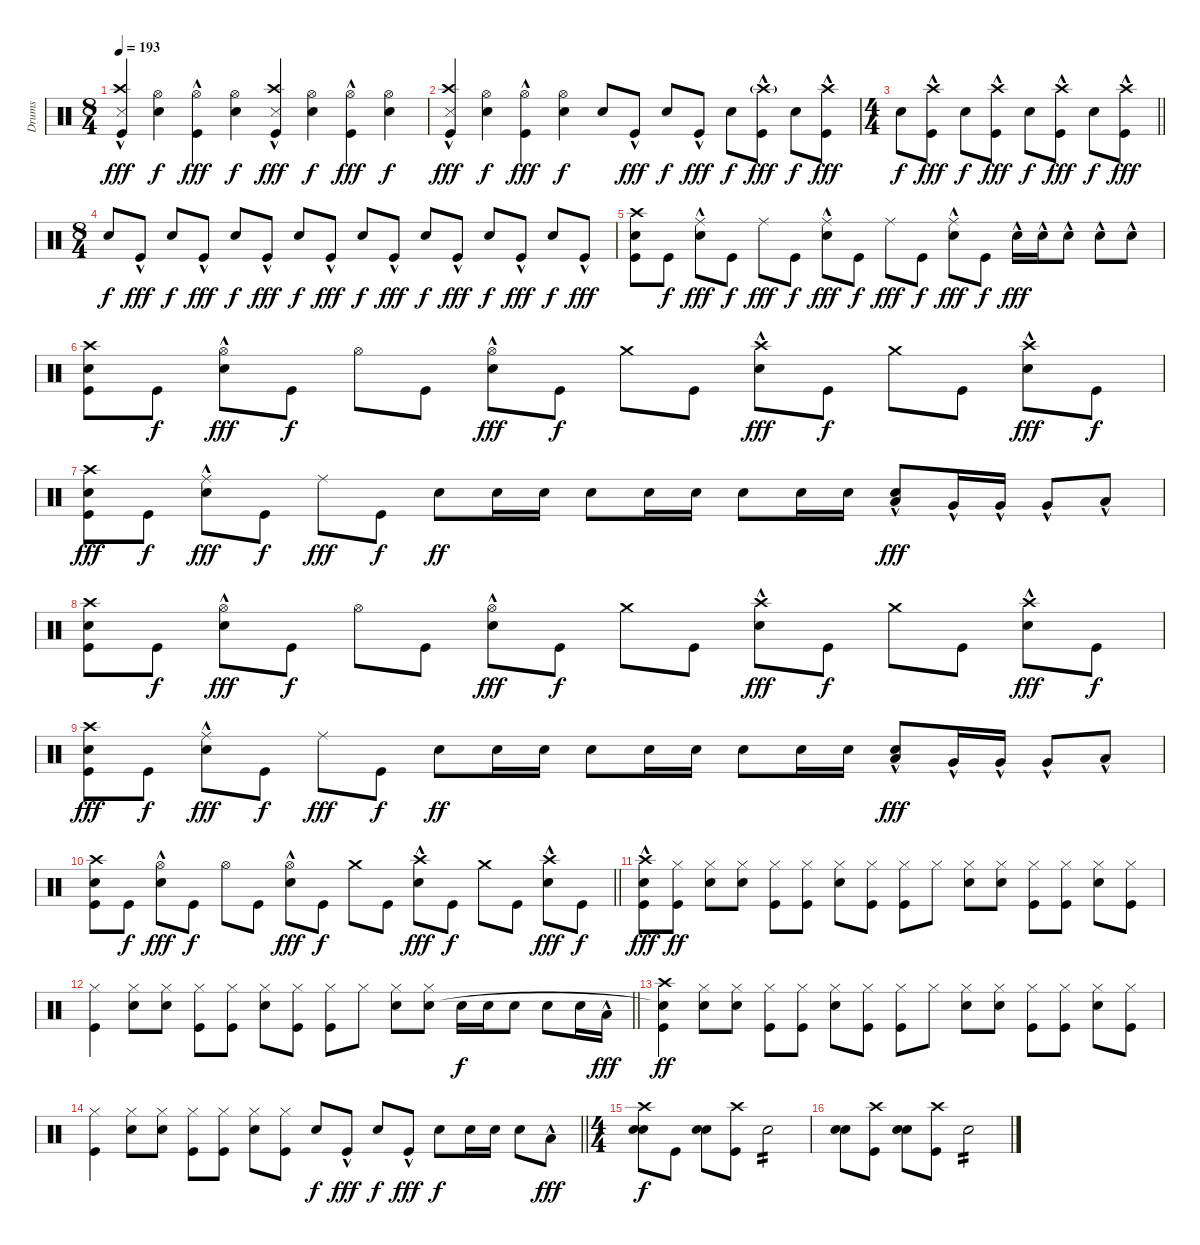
\track ("Drums" "Drums") {instrument percussion}
\staff {score}
\articulation defaults
\ts (8 4)
\tempo 193
\clef neutral
\ks c
("Snare (side stick) 3" "Crash high (hit)" "Kick (hit)"{hac}).4{dy fff} ("Hi-Hat (open)" "Snare (hit) 2").4{dy f} ("Hi-Hat (open)" "Kick (hit)"{hac}).4{dy fff} ("Hi-Hat (open)" "Snare (hit) 2").4{dy f} ("Snare (side stick) 3" "Crash high (hit)" "Kick (hit)"{hac}).4{dy fff} ("Hi-Hat (open)" "Snare (hit) 2").4{dy f} ("Hi-Hat (open)" "Kick (hit)"{hac}).4{dy fff} ("Hi-Hat (open)" "Snare (hit) 2").4{dy f} |
("Snare (side stick) 3" "Crash high (hit)" "Kick (hit)"{hac}).4{dy fff} ("Hi-Hat (open)" "Snare (hit) 2").4{dy f} ("Hi-Hat (open)" "Kick (hit)"{hac}).4{dy fff} ("Hi-Hat (open)" "Snare (hit) 2").4{dy f} "Snare (hit) 2".8 "Kick (hit)"{hac}.8{dy fff} "Snare (hit) 2".8{dy f} "Kick (hit)"{hac}.8{dy fff} "Snare (hit) 2".8{dy f} ("Crash high (hit)"{g} "Kick (hit)"{hac}).8{dy fff} "Snare (hit) 2".8{dy f} ("Crash high (hit)" "Kick (hit)"{hac}).8{dy fff} |
\ts (4 4)
\barLineRight lightlight "Snare (hit) 2".8{dy f}
("Crash high (hit)" "Kick (hit)"{hac}).8{dy fff} "Snare (hit) 2".8{dy f} ("Crash high (hit)" "Kick (hit)"{hac}).8{dy fff} "Snare (hit) 2".8{dy f} ("Crash high (hit)" "Kick (hit)"{hac}).8{dy fff} "Snare (hit) 2".8{dy f} ("Crash high (hit)" "Kick (hit)"{hac}).8{dy fff} |
\ts (8 4)
"Snare (hit) 2".8{dy f} "Kick (hit)"{hac}.8{dy fff} "Snare (hit) 2".8{dy f} "Kick (hit)"{hac}.8{dy fff} "Snare (hit) 2".8{dy f} "Kick (hit)"{hac}.8{dy fff} "Snare (hit) 2".8{dy f} "Kick (hit)"{hac}.8{dy fff} "Snare (hit) 2".8{dy f} "Kick (hit)"{hac}.8{dy fff} "Snare (hit) 2".8{dy f} "Kick (hit)"{hac}.8{dy fff} "Snare (hit) 2".8{dy f} "Kick (hit)"{hac}.8{dy fff} "Snare (hit) 2".8{dy f} "Kick (hit)"{hac}.8{dy fff} |
("Crash high (hit)" "Snare (hit) 2" "Kick (hit)").8 "Kick (hit)".8{dy f} ("Ride (middle)" "Snare (hit) 2"{hac}).8{dy fff} "Kick (hit)".8{dy f} "Ride (middle)".8{dy fff} "Kick (hit)".8{dy f} ("Ride (middle)" "Snare (hit) 2"{hac}).8{dy fff} "Kick (hit)".8{dy f} "Ride (middle)".8{dy fff} "Kick (hit)".8{dy f} ("Ride (middle)" "Snare (hit) 2"{hac}).8{dy fff} "Kick (hit)".8{dy f} "Snare (hit) 2"{hac}.16{dy fff} "Snare (hit) 2"{hac}.16 "Snare (hit) 2"{hac}.8 "Snare (hit) 2"{hac}.8 "Snare (hit) 2"{hac}.8 |
("Crash high (hit)" "Snare (hit) 2" "Kick (hit)").8 "Kick (hit)".8{dy f} ("Hi-Hat (open)" "Snare (hit) 2"{hac}).8{dy fff} "Kick (hit)".8{dy f} "Hi-Hat (open)".8 "Kick (hit)".8 ("Hi-Hat (open)" "Snare (hit) 2"{hac}).8{dy fff} "Kick (hit)".8{dy f} "Crash medium (hit)".8 "Kick (hit)".8 ("Crash high (hit)" "Snare (hit) 2"{hac}).8{dy fff} "Kick (hit)".8{dy f} "Crash medium (hit)".8 "Kick (hit)".8 ("Crash high (hit)" "Snare (hit) 2"{hac}).8{dy fff} "Kick (hit)".8{dy f} |
("Crash high (hit)" "Snare (hit) 2" "Kick (hit)").8{dy fff} "Kick (hit)".8{dy f} ("Ride (middle)" "Snare (hit) 2"{hac}).8{dy fff} "Kick (hit)".8{dy f} "Ride (middle)".8{dy fff} "Kick (hit)".8{dy f} "Snare (hit) 2".8{dy ff} "Snare (hit) 2".16 "Snare (hit) 2".16 "Snare (hit) 2".8 "Snare (hit) 2".16 "Snare (hit) 2".16 "Snare (hit) 2".8 "Snare (hit) 2".16 "Snare (hit) 2".16 ("Snare (hit) 2" "Low Tom (hit)"{hac}).8{dy fff} "Very Low Tom (hit)"{hac}.16 "Very Low Tom (hit)"{hac}.16 "Very Low Tom (hit)"{hac}.8 "Low Floor Tom (hit)"{hac}.8 |
("Crash high (hit)" "Snare (hit) 2" "Kick (hit)").8 "Kick (hit)".8{dy f} ("Hi-Hat (open)" "Snare (hit) 2"{hac}).8{dy fff} "Kick (hit)".8{dy f} "Hi-Hat (open)".8 "Kick (hit)".8 ("Hi-Hat (open)" "Snare (hit) 2"{hac}).8{dy fff} "Kick (hit)".8{dy f} "Crash medium (hit)".8 "Kick (hit)".8 ("Crash high (hit)" "Snare (hit) 2"{hac}).8{dy fff} "Kick (hit)".8{dy f} "Crash medium (hit)".8 "Kick (hit)".8 ("Crash high (hit)" "Snare (hit) 2"{hac}).8{dy fff} "Kick (hit)".8{dy f} |
("Crash high (hit)" "Snare (hit) 2" "Kick (hit)").8{dy fff} "Kick (hit)".8{dy f} ("Ride (middle)" "Snare (hit) 2"{hac}).8{dy fff} "Kick (hit)".8{dy f} "Ride (middle)".8{dy fff} "Kick (hit)".8{dy f} "Snare (hit) 2".8{dy ff} "Snare (hit) 2".16 "Snare (hit) 2".16 "Snare (hit) 2".8 "Snare (hit) 2".16 "Snare (hit) 2".16 "Snare (hit) 2".8 "Snare (hit) 2".16 "Snare (hit) 2".16 ("Snare (hit) 2" "Low Tom (hit)"{hac}).8{dy fff} "Very Low Tom (hit)"{hac}.16 "Very Low Tom (hit)"{hac}.16 "Very Low Tom (hit)"{hac}.8 "Low Floor Tom (hit)"{hac}.8 |
\barLineRight lightlight
("Crash high (hit)" "Snare (hit) 2" "Kick (hit)").8 "Kick (hit)".8{dy f} ("Hi-Hat (open)" "Snare (hit) 2"{hac}).8{dy fff} "Kick (hit)".8{dy f} "Hi-Hat (open)".8 "Kick (hit)".8 ("Hi-Hat (open)" "Snare (hit) 2"{hac}).8{dy fff} "Kick (hit)".8{dy f} "Crash medium (hit)".8 "Kick (hit)".8 ("Crash high (hit)" "Snare (hit) 2"{hac}).8{dy fff} "Kick (hit)".8{dy f} "Crash medium (hit)".8 "Kick (hit)".8 ("Crash high (hit)" "Snare (hit) 2"{hac}).8{dy fff} "Kick (hit)".8{dy f} |
("Crash high (hit)"{hac} "Snare (hit) 2" "Kick (hit)").8{dy fff} ("Hi-Hat (closed)" "Kick (hit)").8{dy ff} ("Hi-Hat (closed)" "Snare (hit) 2").8 ("Hi-Hat (closed)" "Snare (hit) 2").8 ("Hi-Hat (closed)" "Kick (hit)").8 ("Hi-Hat (closed)" "Kick (hit)").8 ("Hi-Hat (closed)" "Snare (hit) 2").8 ("Hi-Hat (closed)" "Kick (hit)").8 ("Hi-Hat (closed)" "Kick (hit)").8 "Hi-Hat (closed)".8 ("Hi-Hat (closed)" "Snare (hit) 2").8 ("Hi-Hat (closed)" "Snare (hit) 2").8 ("Hi-Hat (closed)" "Kick (hit)").8 ("Hi-Hat (closed)" "Kick (hit)").8 ("Hi-Hat (closed)" "Snare (hit) 2").8 ("Hi-Hat (closed)" "Kick (hit)").8 |
\barLineRight lightlight
("Hi-Hat (closed)" "Kick (hit)").4 ("Hi-Hat (closed)" "Snare (hit) 2").8 ("Hi-Hat (closed)" "Snare (hit) 2").8 ("Hi-Hat (closed)" "Kick (hit)").8 ("Hi-Hat (closed)" "Kick (hit)").8 ("Hi-Hat (closed)" "Snare (hit) 2").8 ("Hi-Hat (closed)" "Kick (hit)").8 ("Hi-Hat (closed)" "Kick (hit)").8 "Hi-Hat (closed)".8 ("Hi-Hat (closed)" "Snare (hit) 2").8 ("Hi-Hat (closed)" "Snare (hit) 2").8 "Snare (hit) 2".16{dy f} "Snare (hit) 2".16 "Snare (hit) 2".8 "Snare (hit) 2".8 "Snare (hit) 2".16 "Low Tom (hit)"{hac}.16{dy fff} |
("Crash high (hit)" "Snare (hit)"{t} "Kick (hit)").4{dy ff} ("Hi-Hat (closed)" "Snare (hit) 2").8 ("Hi-Hat (closed)" "Snare (hit) 2").8 ("Hi-Hat (closed)" "Kick (hit)").8 ("Hi-Hat (closed)" "Kick (hit)").8 ("Hi-Hat (closed)" "Snare (hit) 2").8 ("Hi-Hat (closed)" "Kick (hit)").8 ("Hi-Hat (closed)" "Kick (hit)").8 "Hi-Hat (closed)".8 ("Hi-Hat (closed)" "Snare (hit) 2").8 ("Hi-Hat (closed)" "Snare (hit) 2").8 ("Hi-Hat (closed)" "Kick (hit)").8 ("Hi-Hat (closed)" "Kick (hit)").8 ("Hi-Hat (closed)" "Snare (hit) 2").8 ("Hi-Hat (closed)" "Kick (hit)").8 |
\barLineRight lightlight
("Hi-Hat (closed)" "Kick (hit)").4 ("Hi-Hat (closed)" "Snare (hit) 2").8 ("Hi-Hat (closed)" "Snare (hit) 2").8 ("Hi-Hat (closed)" "Kick (hit)").8 ("Hi-Hat (closed)" "Kick (hit)").8 ("Hi-Hat (closed)" "Snare (hit) 2").8 ("Hi-Hat (closed)" "Kick (hit)").8 "Snare (hit) 2".8{dy f} "Kick (hit)"{hac}.8{dy fff} "Snare (hit) 2".8{dy f} "Kick (hit)"{hac}.8{dy fff} "Snare (hit) 2".8{dy f} "Snare (hit) 2".16 "Snare (hit) 2".16 "Snare (hit) 2".8 "Low Tom (hit)"{hac}.8{dy fff} |
\ts (4 4)
("Crash high (hit)" "Snare (hit) 2" "Snare (hit) 2").8{dy f} "Kick (hit)".8 ("Snare (hit) 2" "Snare (hit) 2").8 ("Crash high (hit)" "Kick (hit)").8 "Snare (hit) 2".2{tp 2} |
("Snare (hit) 2" "Snare (hit) 2").8 ("Crash high (hit)" "Kick (hit)").8 ("Snare (hit) 2" "Snare (hit) 2").8 ("Crash high (hit)" "Kick (hit)").8 "Snare (hit) 2".2{tp 2}
